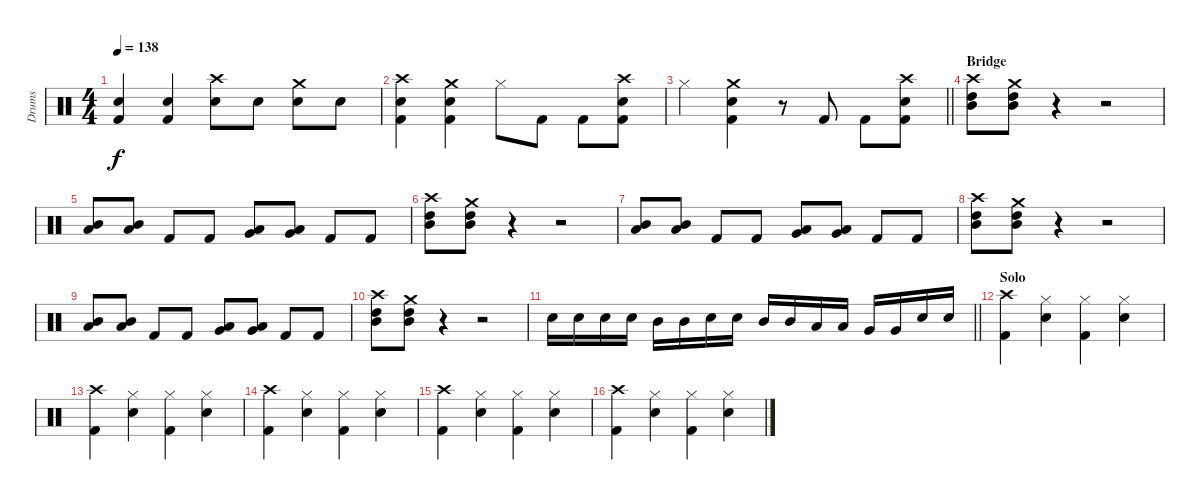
\track ("Drums" "Drums") {instrument percussion}
\staff {score}
\articulation defaults
\ts (4 4)
\tempo 138
\clef neutral
\ks c
("Snare (hit) 2" "Kick (hit) 2").4{dy f} ("Snare (hit) 2" "Kick (hit) 2").4 ("Crash high (hit)" "Snare (hit) 2").8 "Snare (hit) 2".8 ("Crash medium (hit)" "Snare (hit) 2").8 "Snare (hit) 2".8 |
("Crash high (hit)" "Snare (hit) 2" "Kick (hit) 2").4 ("Crash medium (hit)" "Snare (hit) 2" "Kick (hit) 2").4 "Hi-Hat (closed)".8 "Kick (hit) 2".8 "Kick (hit) 2".8 ("Crash high (hit)" "Snare (hit) 2" "Kick (hit) 2").8 |
\barLineRight lightlight "Hi-Hat (closed)".4
("Crash medium (hit)" "Snare (hit) 2" "Kick (hit) 2").4 r.8 "Kick (hit) 2".8 "Kick (hit) 2".8 ("Crash high (hit)" "Snare (hit) 2" "Kick (hit) 2").8 |
\section ("" "Bridge")
("Crash high (hit)" "High Tom (hit)" "Mid Tom (hit)").8 ("Crash medium (hit)" "High Tom (hit)" "Mid Tom (hit)").8 r.4 r.2 |
("Mid Tom (hit)" "Low Tom (hit)").8 ("Mid Tom (hit)" "Low Tom (hit)").8 "Kick (hit) 2".8 "Kick (hit) 2".8 ("Low Tom (hit)" "Very Low Tom (hit)").8 ("Low Tom (hit)" "Very Low Tom (hit)").8 "Kick (hit) 2".8 "Kick (hit) 2".8 |
("Crash high (hit)" "High Tom (hit)" "Mid Tom (hit)").8 ("Crash medium (hit)" "High Tom (hit)" "Mid Tom (hit)").8 r.4 r.2 |
("Mid Tom (hit)" "Low Tom (hit)").8 ("Mid Tom (hit)" "Low Tom (hit)").8 "Kick (hit) 2".8 "Kick (hit) 2".8 ("Low Tom (hit)" "Very Low Tom (hit)").8 ("Low Tom (hit)" "Very Low Tom (hit)").8 "Kick (hit) 2".8 "Kick (hit) 2".8 |
("Crash high (hit)" "High Tom (hit)" "Mid Tom (hit)").8 ("Crash medium (hit)" "High Tom (hit)" "Mid Tom (hit)").8 r.4 r.2 |
("Mid Tom (hit)" "Low Tom (hit)").8 ("Mid Tom (hit)" "Low Tom (hit)").8 "Kick (hit) 2".8 "Kick (hit) 2".8 ("Low Tom (hit)" "Very Low Tom (hit)").8 ("Low Tom (hit)" "Very Low Tom (hit)").8 "Kick (hit) 2".8 "Kick (hit) 2".8 |
("Crash high (hit)" "High Tom (hit)" "Mid Tom (hit)").8 ("Crash medium (hit)" "High Tom (hit)" "Mid Tom (hit)").8 r.4 r.2 |
\barLineRight lightlight "Snare (hit) 2".16 "Snare (hit) 2".16 "Snare (hit) 2".16 "Snare (hit) 2".16 "Mid Tom (hit)".16 "Mid Tom (hit)".16 "Snare (hit) 2".16 "Snare (hit) 2".16 "Mid Tom (hit)".16 "Mid Tom (hit)".16 "Low Tom (hit)".16 "Low Tom (hit)".16 "Very Low Tom (hit)".16 "Very Low Tom (hit)".16 "Snare (hit) 2".16 "Snare (hit) 2".16
|
\section ("" "Solo")
("Crash high (hit)" "Kick (hit) 2").4 ("Snare (hit) 2" "Hi-Hat (closed)").4 ("Hi-Hat (closed)" "Kick (hit) 2").4 ("Snare (hit) 2" "Hi-Hat (closed)").4 |
("Crash high (hit)" "Kick (hit) 2").4 ("Snare (hit) 2" "Hi-Hat (closed)").4 ("Hi-Hat (closed)" "Kick (hit) 2").4 ("Snare (hit) 2" "Hi-Hat (closed)").4 |
("Crash high (hit)" "Kick (hit) 2").4 ("Snare (hit) 2" "Hi-Hat (closed)").4 ("Hi-Hat (closed)" "Kick (hit) 2").4 ("Snare (hit) 2" "Hi-Hat (closed)").4 |
("Crash high (hit)" "Kick (hit) 2").4 ("Snare (hit) 2" "Hi-Hat (closed)").4 ("Hi-Hat (closed)" "Kick (hit) 2").4 ("Snare (hit) 2" "Hi-Hat (closed)").4 |
("Crash high (hit)" "Kick (hit) 2").4 ("Snare (hit) 2" "Hi-Hat (closed)").4 ("Hi-Hat (closed)" "Kick (hit) 2").4 ("Snare (hit) 2" "Hi-Hat (closed)").4
